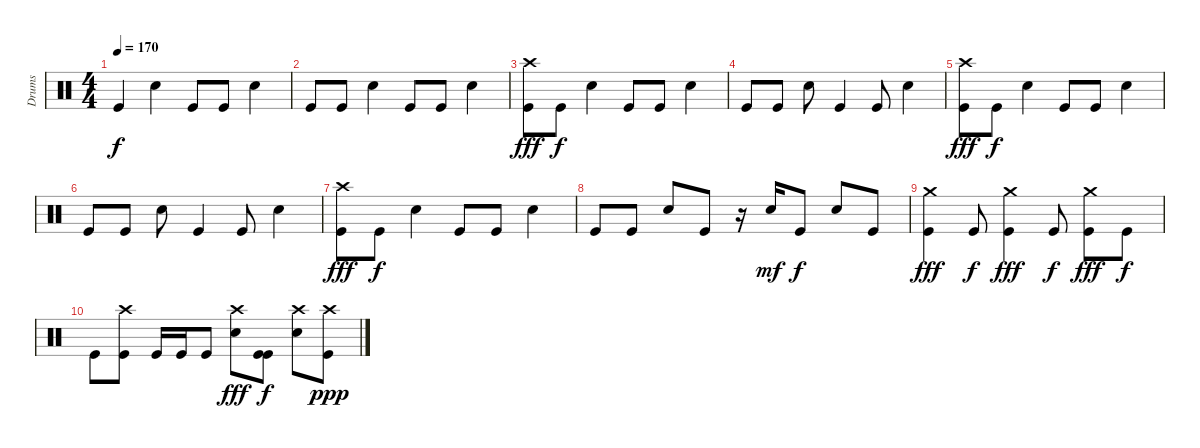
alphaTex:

\track ("Drums" "Drums") {instrument percussion}
\staff {score}
\articulation defaults
\ts (4 4)
\tempo 170
\clef neutral
\ks c "Kick (hit)".4{dy f} "Electric Snare (hit)".4 "Kick (hit)".8 "Kick (hit)".8 "Electric Snare (hit)".4
|
"Kick (hit)".8 "Kick (hit)".8 "Electric Snare (hit)".4 "Kick (hit)".8 "Kick (hit)".8 "Electric Snare (hit)".4 |
("Crash high (hit)" "Kick (hit)").8{dy fff} "Kick (hit)".8{dy f} "Electric Snare (hit)".4 "Kick (hit)".8 "Kick (hit)".8 "Electric Snare (hit)".4 |
"Kick (hit)".8 "Kick (hit)".8 "Electric Snare (hit)".8 "Kick (hit)".4 "Kick (hit)".8 "Electric Snare (hit)".4 |
("Crash high (hit)" "Kick (hit)").8{dy fff} "Kick (hit)".8{dy f} "Electric Snare (hit)".4 "Kick (hit)".8 "Kick (hit)".8 "Electric Snare (hit)".4 |
"Kick (hit)".8 "Kick (hit)".8 "Electric Snare (hit)".8 "Kick (hit)".4 "Kick (hit)".8 "Electric Snare (hit)".4 |
("Crash high (hit)" "Kick (hit)").8{dy fff} "Kick (hit)".8{dy f} "Electric Snare (hit)".4 "Kick (hit)".8 "Kick (hit)".8 "Electric Snare (hit)".4 |
"Kick (hit)".8 "Kick (hit)".8 "Electric Snare (hit)".8 "Kick (hit)".8 r.16 "Electric Snare (hit)".16{dy mf} "Kick (hit)".8{dy f} "Electric Snare (hit)".8 "Kick (hit)".8 |
("Crash medium (hit)" "Kick (hit)").4{dy fff} "Kick (hit)".8{dy f} ("Crash medium (hit)" "Kick (hit)").4{dy fff} "Kick (hit)".8{dy f} ("Crash medium (hit)" "Kick (hit)").8{dy fff} "Kick (hit)".8{dy f} |
"Kick (hit)".8 ("Crash high (hit)" "Kick (hit)").8 "Kick (hit)".16 "Kick (hit)".16 "Kick (hit)".8 ("Crash high (hit)" "Electric Snare (hit)").8{dy fff} ("Kick (hit)" "Kick (hit)").8{dy f} ("Crash high (hit)" "Electric Snare (hit)").8 ("Crash high (hit)" "Kick (hit)").8{dy ppp}
